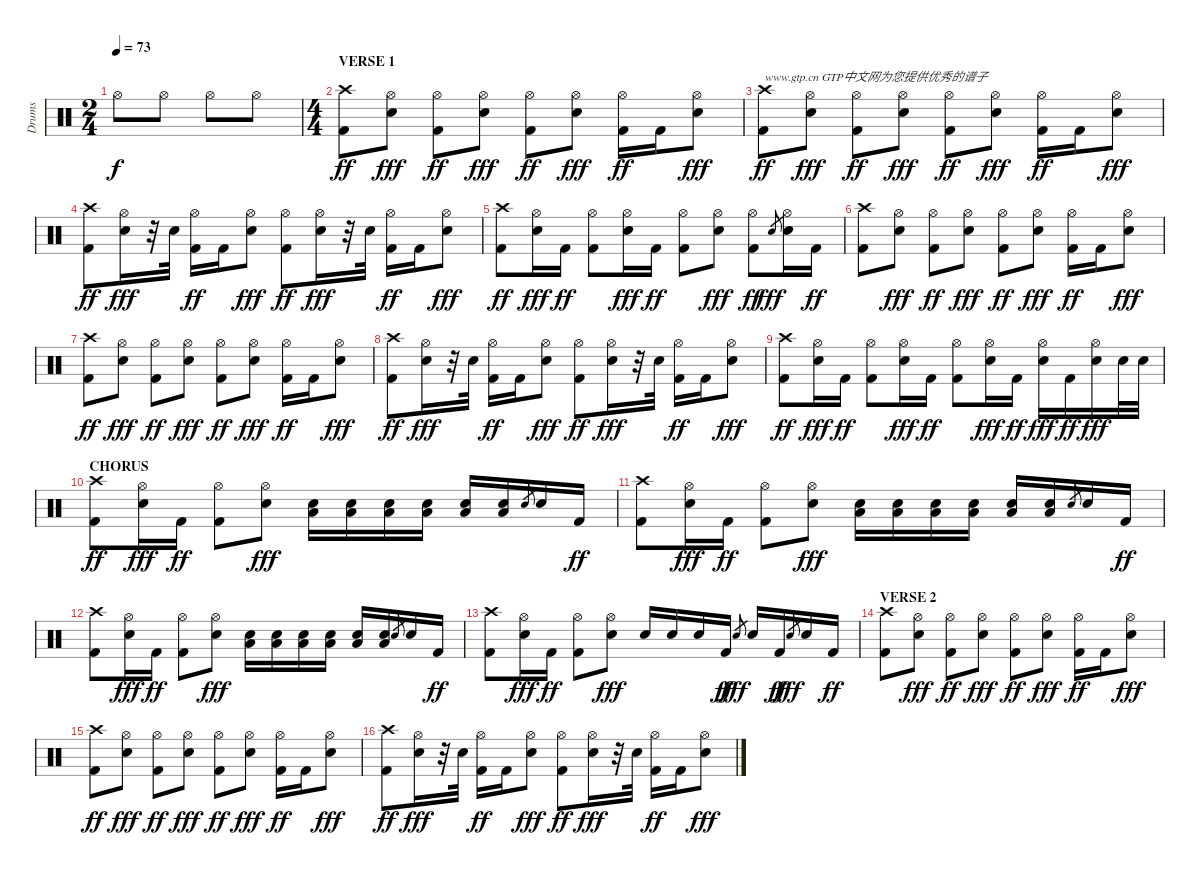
\track ("Drums" "Drums") {instrument percussion}
\staff {score}
\articulation defaults
\ts (2 4)
\tempo 73
\clef neutral
\ks c "Hi-Hat (open)".8{dy f} "Hi-Hat (open)".8 "Hi-Hat (open)".8 "Hi-Hat (open)".8
|
\ts (4 4)
\section ("" "VERSE 1")
("Crash high (hit)" "Kick (hit) 2").8{dy ff} ("Hi-Hat (open)" "Electric Snare (hit)").8{dy fff} ("Hi-Hat (open)" "Kick (hit) 2").8{dy ff} ("Hi-Hat (open)" "Electric Snare (hit)").8{dy fff} ("Hi-Hat (open)" "Kick (hit) 2").8{dy ff} ("Hi-Hat (open)" "Electric Snare (hit)").8{dy fff} ("Hi-Hat (open)" "Kick (hit) 2").16{dy ff} "Kick (hit) 2".16 ("Hi-Hat (open)" "Electric Snare (hit)").8{dy fff} |
("Crash high (hit)" "Kick (hit) 2").8{txt "www.gtp.cn GTP中文网为您提供优秀的谱子" dy ff} ("Hi-Hat (open)" "Electric Snare (hit)").8{dy fff} ("Hi-Hat (open)" "Kick (hit) 2").8{dy ff} ("Hi-Hat (open)" "Electric Snare (hit)").8{dy fff} ("Hi-Hat (open)" "Kick (hit) 2").8{dy ff} ("Hi-Hat (open)" "Electric Snare (hit)").8{dy fff} ("Hi-Hat (open)" "Kick (hit) 2").16{dy ff} "Kick (hit) 2".16 ("Hi-Hat (open)" "Electric Snare (hit)").8{dy fff} |
("Crash high (hit)" "Kick (hit) 2").8{dy ff} ("Hi-Hat (open)" "Electric Snare (hit)").16{dy fff} r.32 "Electric Snare (hit)".32 ("Hi-Hat (open)" "Kick (hit) 2").16{dy ff} "Kick (hit) 2".16 ("Hi-Hat (open)" "Electric Snare (hit)").8{dy fff} ("Hi-Hat (open)" "Kick (hit) 2").8{dy ff} ("Hi-Hat (open)" "Electric Snare (hit)").16{dy fff} r.32 "Electric Snare (hit)".32 ("Hi-Hat (open)" "Kick (hit) 2").16{dy ff} "Kick (hit) 2".16 ("Hi-Hat (open)" "Electric Snare (hit)").8{dy fff} |
("Crash high (hit)" "Kick (hit) 2").8{dy ff} ("Hi-Hat (open)" "Electric Snare (hit)").16{dy fff} "Kick (hit) 2".16{dy ff} ("Hi-Hat (open)" "Kick (hit) 2").8 ("Hi-Hat (open)" "Electric Snare (hit)").16{dy fff} "Kick (hit) 2".16{dy ff} ("Hi-Hat (open)" "Kick (hit) 2").8 ("Hi-Hat (open)" "Electric Snare (hit)").8{dy fff} ("Hi-Hat (open)" "Kick (hit) 2").8{dy ff} "Electric Snare (hit)".8{gr dy fff} ("Hi-Hat (open)" "Electric Snare (hit)").16 "Kick (hit) 2".16{dy ff} |
("Crash high (hit)" "Kick (hit) 2").8 ("Hi-Hat (open)" "Electric Snare (hit)").8{dy fff} ("Hi-Hat (open)" "Kick (hit) 2").8{dy ff} ("Hi-Hat (open)" "Electric Snare (hit)").8{dy fff} ("Hi-Hat (open)" "Kick (hit) 2").8{dy ff} ("Hi-Hat (open)" "Electric Snare (hit)").8{dy fff} ("Hi-Hat (open)" "Kick (hit) 2").16{dy ff} "Kick (hit) 2".16 ("Hi-Hat (open)" "Electric Snare (hit)").8{dy fff} |
("Crash high (hit)" "Kick (hit) 2").8{dy ff} ("Hi-Hat (open)" "Electric Snare (hit)").8{dy fff} ("Hi-Hat (open)" "Kick (hit) 2").8{dy ff} ("Hi-Hat (open)" "Electric Snare (hit)").8{dy fff} ("Hi-Hat (open)" "Kick (hit) 2").8{dy ff} ("Hi-Hat (open)" "Electric Snare (hit)").8{dy fff} ("Hi-Hat (open)" "Kick (hit) 2").16{dy ff} "Kick (hit) 2".16 ("Hi-Hat (open)" "Electric Snare (hit)").8{dy fff} |
("Crash high (hit)" "Kick (hit) 2").8{dy ff} ("Hi-Hat (open)" "Electric Snare (hit)").16{dy fff} r.32 "Electric Snare (hit)".32 ("Hi-Hat (open)" "Kick (hit) 2").16{dy ff} "Kick (hit) 2".16 ("Hi-Hat (open)" "Electric Snare (hit)").8{dy fff} ("Hi-Hat (open)" "Kick (hit) 2").8{dy ff} ("Hi-Hat (open)" "Electric Snare (hit)").16{dy fff} r.32 "Electric Snare (hit)".32 ("Hi-Hat (open)" "Kick (hit) 2").16{dy ff} "Kick (hit) 2".16 ("Hi-Hat (open)" "Electric Snare (hit)").8{dy fff} |
("Crash high (hit)" "Kick (hit) 2").8{dy ff} ("Hi-Hat (open)" "Electric Snare (hit)").16{dy fff} "Kick (hit) 2".16{dy ff} ("Hi-Hat (open)" "Kick (hit) 2").8 ("Hi-Hat (open)" "Electric Snare (hit)").16{dy fff} "Kick (hit) 2".16{dy ff} ("Hi-Hat (open)" "Kick (hit) 2").8 ("Hi-Hat (open)" "Electric Snare (hit)").16{dy fff} "Kick (hit) 2".16{dy ff} ("Hi-Hat (open)" "Electric Snare (hit)").16{dy fff} "Kick (hit) 2".16{dy ff} ("Hi-Hat (open)" "Electric Snare (hit)").16{dy fff} "Electric Snare (hit)".32 "Electric Snare (hit)".32 |
\section ("" "CHORUS")
("Crash high (hit)" "Kick (hit) 2").8{dy ff} ("Hi-Hat (open)" "Electric Snare (hit)").16{dy fff} "Kick (hit) 2".16{dy ff} ("Hi-Hat (open)" "Kick (hit) 2").8 ("Hi-Hat (open)" "Electric Snare (hit)").8{dy fff} ("Low Floor Tom (hit)" "Electric Snare (hit)").16 ("Low Floor Tom (hit)" "Electric Snare (hit)").16 ("Low Floor Tom (hit)" "Electric Snare (hit)").16 ("Low Floor Tom (hit)" "Electric Snare (hit)").16 ("Low Floor Tom (hit)" "Electric Snare (hit)").16 ("Low Floor Tom (hit)" "Electric Snare (hit)").16 "Electric Snare (hit)".8{gr} "Electric Snare (hit)".16 "Kick (hit) 2".16{dy ff} |
("Crash high (hit)" "Kick (hit) 2").8 ("Hi-Hat (open)" "Electric Snare (hit)").16{dy fff} "Kick (hit) 2".16{dy ff} ("Hi-Hat (open)" "Kick (hit) 2").8 ("Hi-Hat (open)" "Electric Snare (hit)").8{dy fff} ("Low Floor Tom (hit)" "Electric Snare (hit)").16 ("Low Floor Tom (hit)" "Electric Snare (hit)").16 ("Low Floor Tom (hit)" "Electric Snare (hit)").16 ("Low Floor Tom (hit)" "Electric Snare (hit)").16 ("Low Floor Tom (hit)" "Electric Snare (hit)").16 ("Low Floor Tom (hit)" "Electric Snare (hit)").16 "Electric Snare (hit)".8{gr} "Electric Snare (hit)".16 "Kick (hit) 2".16{dy ff} |
("Crash high (hit)" "Kick (hit) 2").8 ("Hi-Hat (open)" "Electric Snare (hit)").16{dy fff} "Kick (hit) 2".16{dy ff} ("Hi-Hat (open)" "Kick (hit) 2").8 ("Hi-Hat (open)" "Electric Snare (hit)").8{dy fff} ("Low Floor Tom (hit)" "Electric Snare (hit)").16 ("Low Floor Tom (hit)" "Electric Snare (hit)").16 ("Low Floor Tom (hit)" "Electric Snare (hit)").16 ("Low Floor Tom (hit)" "Electric Snare (hit)").16 ("Low Floor Tom (hit)" "Electric Snare (hit)").16 ("Low Floor Tom (hit)" "Electric Snare (hit)").16 "Electric Snare (hit)".8{gr} "Electric Snare (hit)".16 "Kick (hit) 2".16{dy ff} |
("Crash high (hit)" "Kick (hit) 2").8 ("Hi-Hat (open)" "Electric Snare (hit)").16{dy fff} "Kick (hit) 2".16{dy ff} ("Hi-Hat (open)" "Kick (hit) 2").8 ("Hi-Hat (open)" "Electric Snare (hit)").8{dy fff} "Electric Snare (hit)".16 "Electric Snare (hit)".16 "Electric Snare (hit)".16 "Kick (hit) 2".16{dy ff} "Electric Snare (hit)".8{gr dy fff} "Electric Snare (hit)".16 "Kick (hit) 2".16{dy ff} "Electric Snare (hit)".8{gr dy fff} "Electric Snare (hit)".16 "Kick (hit) 2".16{dy ff} |
\section ("" "VERSE 2")
("Crash high (hit)" "Kick (hit) 2").8 ("Hi-Hat (open)" "Electric Snare (hit)").8{dy fff} ("Hi-Hat (open)" "Kick (hit) 2").8{dy ff} ("Hi-Hat (open)" "Electric Snare (hit)").8{dy fff} ("Hi-Hat (open)" "Kick (hit) 2").8{dy ff} ("Hi-Hat (open)" "Electric Snare (hit)").8{dy fff} ("Hi-Hat (open)" "Kick (hit) 2").16{dy ff} "Kick (hit) 2".16 ("Hi-Hat (open)" "Electric Snare (hit)").8{dy fff} |
("Crash high (hit)" "Kick (hit) 2").8{dy ff} ("Hi-Hat (open)" "Electric Snare (hit)").8{dy fff} ("Hi-Hat (open)" "Kick (hit) 2").8{dy ff} ("Hi-Hat (open)" "Electric Snare (hit)").8{dy fff} ("Hi-Hat (open)" "Kick (hit) 2").8{dy ff} ("Hi-Hat (open)" "Electric Snare (hit)").8{dy fff} ("Hi-Hat (open)" "Kick (hit) 2").16{dy ff} "Kick (hit) 2".16 ("Hi-Hat (open)" "Electric Snare (hit)").8{dy fff} |
("Crash high (hit)" "Kick (hit) 2").8{dy ff} ("Hi-Hat (open)" "Electric Snare (hit)").16{dy fff} r.32 "Electric Snare (hit)".32 ("Hi-Hat (open)" "Kick (hit) 2").16{dy ff} "Kick (hit) 2".16 ("Hi-Hat (open)" "Electric Snare (hit)").8{dy fff} ("Hi-Hat (open)" "Kick (hit) 2").8{dy ff} ("Hi-Hat (open)" "Electric Snare (hit)").16{dy fff} r.32 "Electric Snare (hit)".32 ("Hi-Hat (open)" "Kick (hit) 2").16{dy ff} "Kick (hit) 2".16 ("Hi-Hat (open)" "Electric Snare (hit)").8{dy fff}
